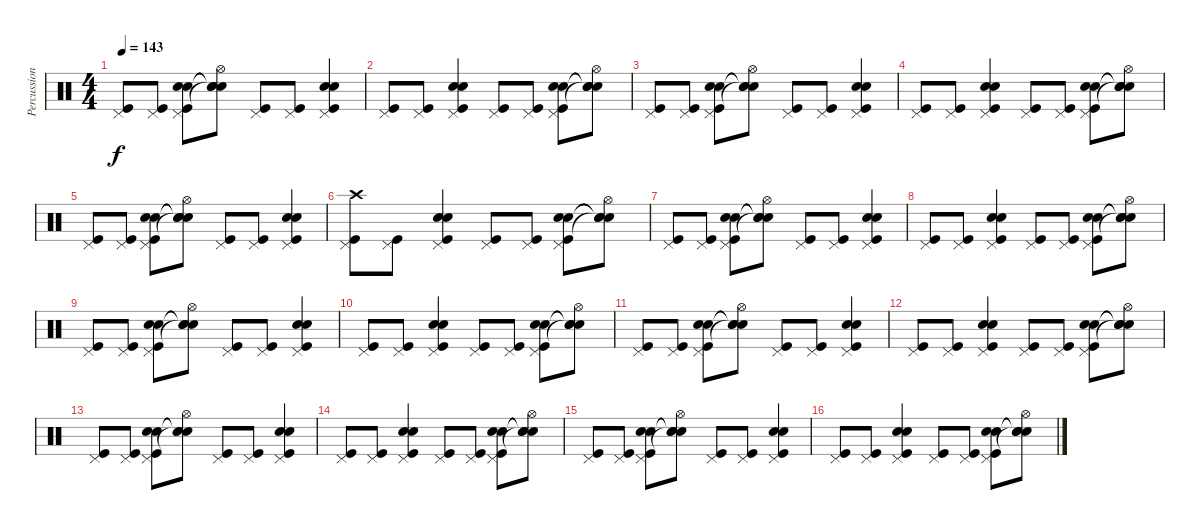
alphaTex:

\track ("Percussions" "Percussion") {instrument percussion}
\staff {score}
\articulation defaults
\ts (4 4)
\tempo 143
\clef neutral
\ks c
("Pedal Hi-Hat (hit)" "Kick (hit)").8{dy f} ("Pedal Hi-Hat (hit)" "Kick (hit)").8 ("Pedal Hi-Hat (hit)" "Snare (hit) 2" "Snare (hit) 2" "Kick (hit)").8 ("Hi-Hat (open)" "Snare (hit)"{t} "Snare (hit)"{t} "Snare (hit)"{t}).8 ("Pedal Hi-Hat (hit)" "Kick (hit)").8 ("Pedal Hi-Hat (hit)" "Kick (hit)").8 ("Pedal Hi-Hat (hit)" "Snare (hit) 2" "Snare (hit) 2" "Kick (hit)").4 |
("Pedal Hi-Hat (hit)" "Kick (hit)").8 ("Pedal Hi-Hat (hit)" "Kick (hit)").8 ("Pedal Hi-Hat (hit)" "Snare (hit) 2" "Snare (hit) 2" "Kick (hit)").4 ("Pedal Hi-Hat (hit)" "Kick (hit)").8 ("Pedal Hi-Hat (hit)" "Kick (hit)").8 ("Pedal Hi-Hat (hit)" "Snare (hit) 2" "Snare (hit) 2" "Kick (hit)").8 ("Hi-Hat (open)" "Snare (hit)"{t} "Snare (hit)"{t} "Snare (hit)"{t}).8 |
("Pedal Hi-Hat (hit)" "Kick (hit)").8 ("Pedal Hi-Hat (hit)" "Kick (hit)").8 ("Pedal Hi-Hat (hit)" "Snare (hit) 2" "Snare (hit) 2" "Kick (hit)").8 ("Hi-Hat (open)" "Snare (hit)"{t} "Snare (hit)"{t} "Snare (hit)"{t}).8 ("Pedal Hi-Hat (hit)" "Kick (hit)").8 ("Pedal Hi-Hat (hit)" "Kick (hit)").8 ("Pedal Hi-Hat (hit)" "Snare (hit) 2" "Snare (hit) 2" "Kick (hit)").4 |
("Pedal Hi-Hat (hit)" "Kick (hit)").8 ("Pedal Hi-Hat (hit)" "Kick (hit)").8 ("Pedal Hi-Hat (hit)" "Snare (hit) 2" "Snare (hit) 2" "Kick (hit)").4 ("Pedal Hi-Hat (hit)" "Kick (hit)").8 ("Pedal Hi-Hat (hit)" "Kick (hit)").8 ("Pedal Hi-Hat (hit)" "Snare (hit) 2" "Snare (hit) 2" "Kick (hit)").8 ("Hi-Hat (open)" "Snare (hit)"{t} "Snare (hit)"{t} "Snare (hit)"{t}).8 |
("Pedal Hi-Hat (hit)" "Kick (hit)").8 ("Pedal Hi-Hat (hit)" "Kick (hit)").8 ("Pedal Hi-Hat (hit)" "Snare (hit) 2" "Snare (hit) 2" "Kick (hit)").8 ("Hi-Hat (open)" "Snare (hit)"{t} "Snare (hit)"{t} "Snare (hit)"{t}).8 ("Pedal Hi-Hat (hit)" "Kick (hit)").8 ("Pedal Hi-Hat (hit)" "Kick (hit)").8 ("Pedal Hi-Hat (hit)" "Snare (hit) 2" "Snare (hit) 2" "Kick (hit)").4 |
("Pedal Hi-Hat (hit)" "Crash high (hit)" "Kick (hit)").8 ("Pedal Hi-Hat (hit)" "Kick (hit)").8 ("Pedal Hi-Hat (hit)" "Snare (hit) 2" "Snare (hit) 2" "Kick (hit)").4 ("Pedal Hi-Hat (hit)" "Kick (hit)").8 ("Pedal Hi-Hat (hit)" "Kick (hit)").8 ("Pedal Hi-Hat (hit)" "Snare (hit) 2" "Snare (hit) 2" "Kick (hit)").8 ("Hi-Hat (open)" "Snare (hit)"{t} "Snare (hit)"{t} "Snare (hit)"{t}).8 |
("Pedal Hi-Hat (hit)" "Kick (hit)").8 ("Pedal Hi-Hat (hit)" "Kick (hit)").8 ("Pedal Hi-Hat (hit)" "Snare (hit) 2" "Snare (hit) 2" "Kick (hit)").8 ("Hi-Hat (open)" "Snare (hit)"{t} "Snare (hit)"{t} "Snare (hit)"{t}).8 ("Pedal Hi-Hat (hit)" "Kick (hit)").8 ("Pedal Hi-Hat (hit)" "Kick (hit)").8 ("Pedal Hi-Hat (hit)" "Snare (hit) 2" "Snare (hit) 2" "Kick (hit)").4 |
("Pedal Hi-Hat (hit)" "Kick (hit)").8 ("Pedal Hi-Hat (hit)" "Kick (hit)").8 ("Pedal Hi-Hat (hit)" "Snare (hit) 2" "Snare (hit) 2" "Kick (hit)").4 ("Pedal Hi-Hat (hit)" "Kick (hit)").8 ("Pedal Hi-Hat (hit)" "Kick (hit)").8 ("Pedal Hi-Hat (hit)" "Snare (hit) 2" "Snare (hit) 2" "Kick (hit)").8 ("Hi-Hat (open)" "Snare (hit)"{t} "Snare (hit)"{t} "Snare (hit)"{t}).8 |
("Pedal Hi-Hat (hit)" "Kick (hit)").8 ("Pedal Hi-Hat (hit)" "Kick (hit)").8 ("Pedal Hi-Hat (hit)" "Snare (hit) 2" "Snare (hit) 2" "Kick (hit)").8 ("Hi-Hat (open)" "Snare (hit)"{t} "Snare (hit)"{t} "Snare (hit)"{t}).8 ("Pedal Hi-Hat (hit)" "Kick (hit)").8 ("Pedal Hi-Hat (hit)" "Kick (hit)").8 ("Pedal Hi-Hat (hit)" "Snare (hit) 2" "Snare (hit) 2" "Kick (hit)").4 |
("Pedal Hi-Hat (hit)" "Kick (hit)").8 ("Pedal Hi-Hat (hit)" "Kick (hit)").8 ("Pedal Hi-Hat (hit)" "Snare (hit) 2" "Snare (hit) 2" "Kick (hit)").4 ("Pedal Hi-Hat (hit)" "Kick (hit)").8 ("Pedal Hi-Hat (hit)" "Kick (hit)").8 ("Pedal Hi-Hat (hit)" "Snare (hit) 2" "Snare (hit) 2" "Kick (hit)").8 ("Hi-Hat (open)" "Snare (hit)"{t} "Snare (hit)"{t} "Snare (hit)"{t}).8 |
("Pedal Hi-Hat (hit)" "Kick (hit)").8 ("Pedal Hi-Hat (hit)" "Kick (hit)").8 ("Pedal Hi-Hat (hit)" "Snare (hit) 2" "Snare (hit) 2" "Kick (hit)").8 ("Hi-Hat (open)" "Snare (hit)"{t} "Snare (hit)"{t} "Snare (hit)"{t}).8 ("Pedal Hi-Hat (hit)" "Kick (hit)").8 ("Pedal Hi-Hat (hit)" "Kick (hit)").8 ("Pedal Hi-Hat (hit)" "Snare (hit) 2" "Snare (hit) 2" "Kick (hit)").4 |
("Pedal Hi-Hat (hit)" "Kick (hit)").8 ("Pedal Hi-Hat (hit)" "Kick (hit)").8 ("Pedal Hi-Hat (hit)" "Snare (hit) 2" "Snare (hit) 2" "Kick (hit)").4 ("Pedal Hi-Hat (hit)" "Kick (hit)").8 ("Pedal Hi-Hat (hit)" "Kick (hit)").8 ("Pedal Hi-Hat (hit)" "Snare (hit) 2" "Snare (hit) 2" "Kick (hit)").8 ("Hi-Hat (open)" "Snare (hit)"{t} "Snare (hit)"{t} "Snare (hit)"{t}).8 |
("Pedal Hi-Hat (hit)" "Kick (hit)").8 ("Pedal Hi-Hat (hit)" "Kick (hit)").8 ("Pedal Hi-Hat (hit)" "Snare (hit) 2" "Snare (hit) 2" "Kick (hit)").8 ("Hi-Hat (open)" "Snare (hit)"{t} "Snare (hit)"{t} "Snare (hit)"{t}).8 ("Pedal Hi-Hat (hit)" "Kick (hit)").8 ("Pedal Hi-Hat (hit)" "Kick (hit)").8 ("Pedal Hi-Hat (hit)" "Snare (hit) 2" "Snare (hit) 2" "Kick (hit)").4 |
("Pedal Hi-Hat (hit)" "Kick (hit)").8 ("Pedal Hi-Hat (hit)" "Kick (hit)").8 ("Pedal Hi-Hat (hit)" "Snare (hit) 2" "Snare (hit) 2" "Kick (hit)").4 ("Pedal Hi-Hat (hit)" "Kick (hit)").8 ("Pedal Hi-Hat (hit)" "Kick (hit)").8 ("Pedal Hi-Hat (hit)" "Snare (hit) 2" "Snare (hit) 2" "Kick (hit)").8 ("Hi-Hat (open)" "Snare (hit)"{t} "Snare (hit)"{t} "Snare (hit)"{t}).8 |
("Pedal Hi-Hat (hit)" "Kick (hit)").8 ("Pedal Hi-Hat (hit)" "Kick (hit)").8 ("Pedal Hi-Hat (hit)" "Snare (hit) 2" "Snare (hit) 2" "Kick (hit)").8 ("Hi-Hat (open)" "Snare (hit)"{t} "Snare (hit)"{t} "Snare (hit)"{t}).8 ("Pedal Hi-Hat (hit)" "Kick (hit)").8 ("Pedal Hi-Hat (hit)" "Kick (hit)").8 ("Pedal Hi-Hat (hit)" "Snare (hit) 2" "Snare (hit) 2" "Kick (hit)").4 |
("Pedal Hi-Hat (hit)" "Kick (hit)").8 ("Pedal Hi-Hat (hit)" "Kick (hit)").8 ("Pedal Hi-Hat (hit)" "Snare (hit) 2" "Snare (hit) 2" "Kick (hit)").4 ("Pedal Hi-Hat (hit)" "Kick (hit)").8 ("Pedal Hi-Hat (hit)" "Kick (hit)").8 ("Pedal Hi-Hat (hit)" "Snare (hit) 2" "Snare (hit) 2" "Kick (hit)").8 ("Hi-Hat (open)" "Snare (hit)"{t} "Snare (hit)"{t} "Snare (hit)"{t}).8
